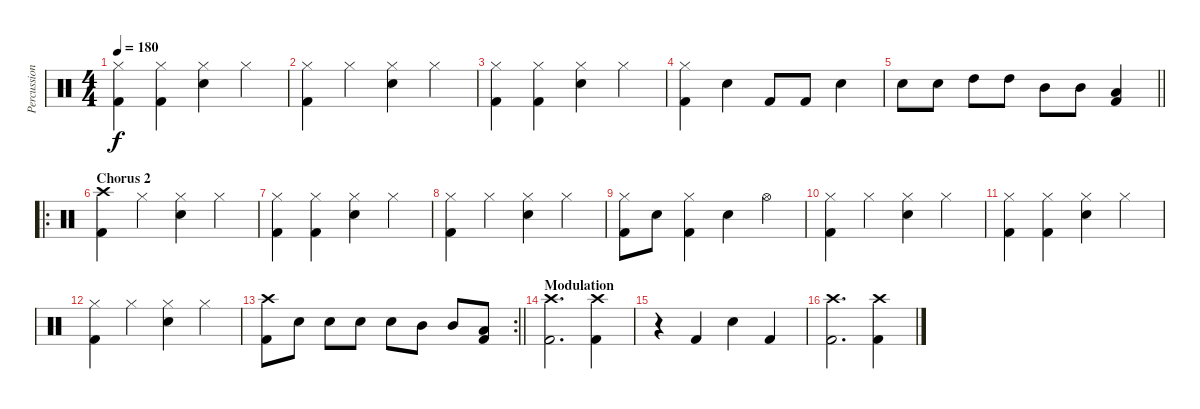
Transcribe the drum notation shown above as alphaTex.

\track ("Percussion" "Percussion") {instrument percussion}
\staff {score}
\articulation defaults
\ts (4 4)
\tempo 180
\clef neutral
\ks c
("Hi-Hat (closed)" "Kick (hit) 2").4{dy f} ("Hi-Hat (closed)" "Kick (hit) 2").4 ("Hi-Hat (closed)" "Snare (hit) 2").4 "Hi-Hat (closed)".4 |
("Hi-Hat (closed)" "Kick (hit) 2").4 "Hi-Hat (closed)".4 ("Hi-Hat (closed)" "Snare (hit) 2").4 "Hi-Hat (closed)".4 |
("Hi-Hat (closed)" "Kick (hit) 2").4 ("Hi-Hat (closed)" "Kick (hit) 2").4 ("Hi-Hat (closed)" "Snare (hit) 2").4 "Hi-Hat (closed)".4 |
("Hi-Hat (closed)" "Kick (hit) 2").4 "Snare (hit) 2".4 "Kick (hit) 2".8 "Kick (hit) 2".8 "Snare (hit) 2".4 |
\barLineRight lightlight "Snare (hit) 2".8 "Snare (hit) 2".8 "High Tom (hit)".8 "High Tom (hit)".8 "Mid Tom (hit)".8 "Mid Tom (hit)".8
("Kick (hit) 2" "Low Tom (hit)").4 |
\ro
\section ("" "Chorus 2")
("Crash high (hit)" "Kick (hit) 2").4 "Hi-Hat (closed)".4 ("Hi-Hat (closed)" "Snare (hit) 2").4 "Hi-Hat (closed)".4 |
("Hi-Hat (closed)" "Kick (hit) 2").4 ("Hi-Hat (closed)" "Kick (hit) 2").4 ("Hi-Hat (closed)" "Snare (hit) 2").4 "Hi-Hat (closed)".4 |
("Hi-Hat (closed)" "Kick (hit) 2").4 "Hi-Hat (closed)".4 ("Hi-Hat (closed)" "Snare (hit) 2").4 "Hi-Hat (closed)".4 |
("Hi-Hat (closed)" "Kick (hit) 2").8 "Snare (hit) 2".8 ("Hi-Hat (closed)" "Kick (hit) 2").4 "Snare (hit) 2".4 "Hi-Hat (open)".4 |
("Hi-Hat (closed)" "Kick (hit) 2").4 "Hi-Hat (closed)".4 ("Hi-Hat (closed)" "Snare (hit) 2").4 "Hi-Hat (closed)".4 |
("Hi-Hat (closed)" "Kick (hit) 2").4 ("Hi-Hat (closed)" "Kick (hit) 2").4 ("Hi-Hat (closed)" "Snare (hit) 2").4 "Hi-Hat (closed)".4 |
("Hi-Hat (closed)" "Kick (hit) 2").4 "Hi-Hat (closed)".4 ("Hi-Hat (closed)" "Snare (hit) 2").4 "Hi-Hat (closed)".4 |
\rc 2
\barLineRight lightlight
("Crash high (hit)" "Kick (hit) 2").8 "Snare (hit) 2".8 "Snare (hit) 2".8 "Snare (hit) 2".8 "Snare (hit) 2".8 "Mid Tom (hit)".8 "Mid Tom (hit)".8 ("Kick (hit) 2" "Low Tom (hit)").8 |
\section ("" "Modulation")
("Crash high (hit)" "Kick (hit) 2").2{d} ("Crash high (hit)" "Kick (hit) 2").4 |
r.4 "Kick (hit) 2".4 "Snare (hit) 2".4 "Kick (hit) 2".4 |
("Crash high (hit)" "Kick (hit) 2").2{d} ("Crash high (hit)" "Kick (hit) 2").4
